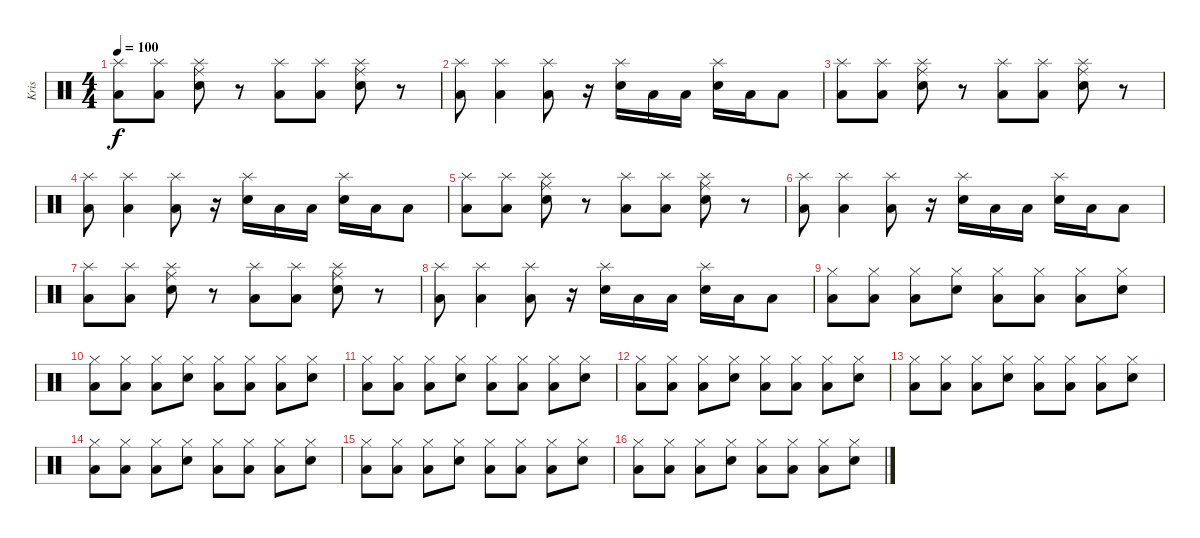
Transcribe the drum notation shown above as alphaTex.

\track ("Kris" "Kris") {instrument percussion}
\staff {score}
\articulation defaults
\ts (4 4)
\tempo 100
\clef neutral
\ks c
("Splash (hit)" "Low Tom (hit)").8{dy f} ("Splash (hit)" "Low Tom (hit)").8 ("Splash (hit)" "Ride (middle)" "Electric Snare (hit)").8 r.8 ("Splash (hit)" "Low Tom (hit)").8 ("Splash (hit)" "Low Tom (hit)").8 ("Splash (hit)" "Ride (middle)" "Electric Snare (hit)").8 r.8 |
("Splash (hit)" "Low Tom (hit)").8 ("Splash (hit)" "Low Tom (hit)").4 ("Splash (hit)" "Low Tom (hit)").8 r.16 ("Splash (hit)" "Electric Snare (hit)").16 "Low Tom (hit)".16 "Low Tom (hit)".16 ("Splash (hit)" "Electric Snare (hit)").16 "Low Tom (hit)".16 "Low Tom (hit)".8 |
("Splash (hit)" "Low Tom (hit)").8 ("Splash (hit)" "Low Tom (hit)").8 ("Splash (hit)" "Ride (middle)" "Electric Snare (hit)").8 r.8 ("Splash (hit)" "Low Tom (hit)").8 ("Splash (hit)" "Low Tom (hit)").8 ("Splash (hit)" "Ride (middle)" "Electric Snare (hit)").8 r.8 |
("Splash (hit)" "Low Tom (hit)").8 ("Splash (hit)" "Low Tom (hit)").4 ("Splash (hit)" "Low Tom (hit)").8 r.16 ("Splash (hit)" "Electric Snare (hit)").16 "Low Tom (hit)".16 "Low Tom (hit)".16 ("Splash (hit)" "Electric Snare (hit)").16 "Low Tom (hit)".16 "Low Tom (hit)".8 |
("Splash (hit)" "Low Tom (hit)").8 ("Splash (hit)" "Low Tom (hit)").8 ("Splash (hit)" "Ride (middle)" "Electric Snare (hit)").8 r.8 ("Splash (hit)" "Low Tom (hit)").8 ("Splash (hit)" "Low Tom (hit)").8 ("Splash (hit)" "Ride (middle)" "Electric Snare (hit)").8 r.8 |
("Splash (hit)" "Low Tom (hit)").8 ("Splash (hit)" "Low Tom (hit)").4 ("Splash (hit)" "Low Tom (hit)").8 r.16 ("Splash (hit)" "Electric Snare (hit)").16 "Low Tom (hit)".16 "Low Tom (hit)".16 ("Splash (hit)" "Electric Snare (hit)").16 "Low Tom (hit)".16 "Low Tom (hit)".8 |
("Splash (hit)" "Low Tom (hit)").8 ("Splash (hit)" "Low Tom (hit)").8 ("Splash (hit)" "Ride (middle)" "Electric Snare (hit)").8 r.8 ("Splash (hit)" "Low Tom (hit)").8 ("Splash (hit)" "Low Tom (hit)").8 ("Splash (hit)" "Ride (middle)" "Electric Snare (hit)").8 r.8 |
("Splash (hit)" "Low Tom (hit)").8 ("Splash (hit)" "Low Tom (hit)").4 ("Splash (hit)" "Low Tom (hit)").8 r.16 ("Splash (hit)" "Electric Snare (hit)").16 "Low Tom (hit)".16 "Low Tom (hit)".16 ("Splash (hit)" "Electric Snare (hit)").16 "Low Tom (hit)".16 "Low Tom (hit)".8 |
("Low Tom (hit)" "Hi-Hat (closed)").8 ("Low Tom (hit)" "Hi-Hat (closed)").8 ("Hi-Hat (closed)" "Low Tom (hit)").8 ("Hi-Hat (closed)" "Electric Snare (hit)").8 ("Hi-Hat (closed)" "Low Tom (hit)").8 ("Hi-Hat (closed)" "Low Tom (hit)").8 ("Hi-Hat (closed)" "Low Tom (hit)").8 ("Hi-Hat (closed)" "Electric Snare (hit)").8 |
("Low Tom (hit)" "Hi-Hat (closed)").8 ("Low Tom (hit)" "Hi-Hat (closed)").8 ("Hi-Hat (closed)" "Low Tom (hit)").8 ("Hi-Hat (closed)" "Electric Snare (hit)").8 ("Hi-Hat (closed)" "Low Tom (hit)").8 ("Hi-Hat (closed)" "Low Tom (hit)").8 ("Hi-Hat (closed)" "Low Tom (hit)").8 ("Hi-Hat (closed)" "Electric Snare (hit)").8 |
("Low Tom (hit)" "Hi-Hat (closed)").8 ("Low Tom (hit)" "Hi-Hat (closed)").8 ("Hi-Hat (closed)" "Low Tom (hit)").8 ("Hi-Hat (closed)" "Electric Snare (hit)").8 ("Hi-Hat (closed)" "Low Tom (hit)").8 ("Hi-Hat (closed)" "Low Tom (hit)").8 ("Hi-Hat (closed)" "Low Tom (hit)").8 ("Hi-Hat (closed)" "Electric Snare (hit)").8 |
("Low Tom (hit)" "Hi-Hat (closed)").8 ("Low Tom (hit)" "Hi-Hat (closed)").8 ("Hi-Hat (closed)" "Low Tom (hit)").8 ("Hi-Hat (closed)" "Electric Snare (hit)").8 ("Hi-Hat (closed)" "Low Tom (hit)").8 ("Hi-Hat (closed)" "Low Tom (hit)").8 ("Hi-Hat (closed)" "Low Tom (hit)").8 ("Hi-Hat (closed)" "Electric Snare (hit)").8 |
("Low Tom (hit)" "Hi-Hat (closed)").8 ("Low Tom (hit)" "Hi-Hat (closed)").8 ("Hi-Hat (closed)" "Low Tom (hit)").8 ("Hi-Hat (closed)" "Electric Snare (hit)").8 ("Hi-Hat (closed)" "Low Tom (hit)").8 ("Hi-Hat (closed)" "Low Tom (hit)").8 ("Hi-Hat (closed)" "Low Tom (hit)").8 ("Hi-Hat (closed)" "Electric Snare (hit)").8 |
("Low Tom (hit)" "Hi-Hat (closed)").8 ("Low Tom (hit)" "Hi-Hat (closed)").8 ("Hi-Hat (closed)" "Low Tom (hit)").8 ("Hi-Hat (closed)" "Electric Snare (hit)").8 ("Hi-Hat (closed)" "Low Tom (hit)").8 ("Hi-Hat (closed)" "Low Tom (hit)").8 ("Hi-Hat (closed)" "Low Tom (hit)").8 ("Hi-Hat (closed)" "Electric Snare (hit)").8 |
("Low Tom (hit)" "Hi-Hat (closed)").8 ("Low Tom (hit)" "Hi-Hat (closed)").8 ("Hi-Hat (closed)" "Low Tom (hit)").8 ("Hi-Hat (closed)" "Electric Snare (hit)").8 ("Hi-Hat (closed)" "Low Tom (hit)").8 ("Hi-Hat (closed)" "Low Tom (hit)").8 ("Hi-Hat (closed)" "Low Tom (hit)").8 ("Hi-Hat (closed)" "Electric Snare (hit)").8 |
("Low Tom (hit)" "Hi-Hat (closed)").8 ("Low Tom (hit)" "Hi-Hat (closed)").8 ("Hi-Hat (closed)" "Low Tom (hit)").8 ("Hi-Hat (closed)" "Electric Snare (hit)").8 ("Hi-Hat (closed)" "Low Tom (hit)").8 ("Hi-Hat (closed)" "Low Tom (hit)").8 ("Hi-Hat (closed)" "Low Tom (hit)").8 ("Hi-Hat (closed)" "Electric Snare (hit)").8
